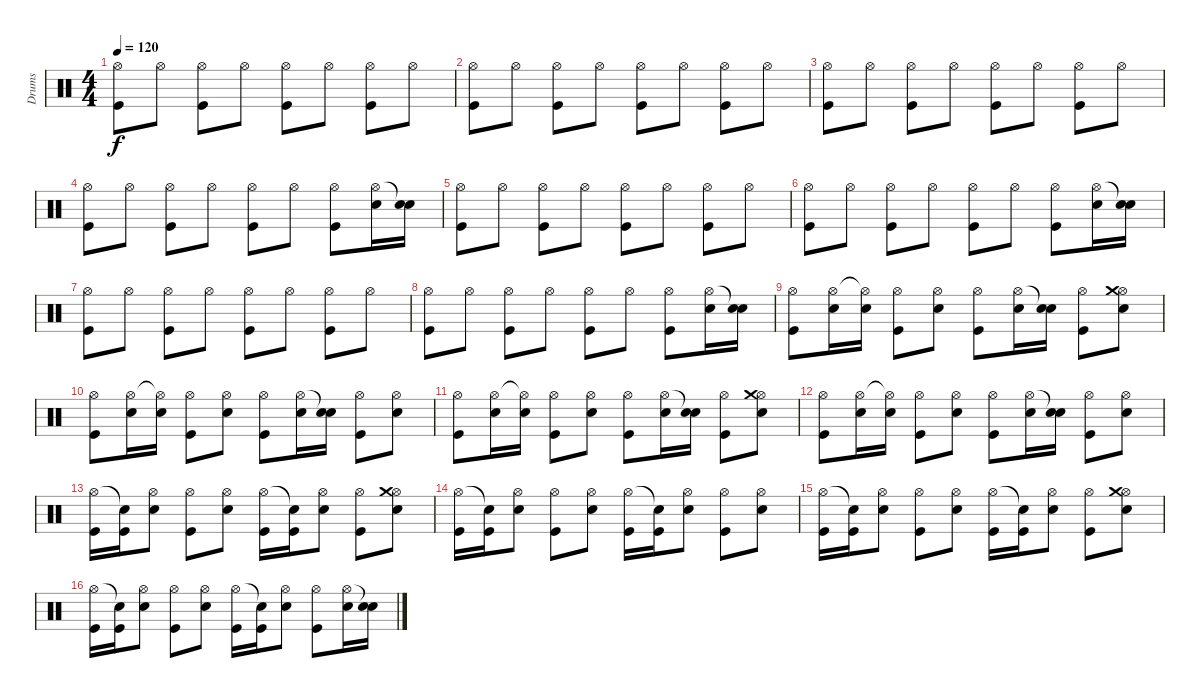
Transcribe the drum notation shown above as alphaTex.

\track ("Drums" "Drums") {instrument percussion}
\staff {score}
\articulation defaults
\ts (4 4)
\tempo 120
\clef neutral
\ks c
("Hi-Hat (open)" "Kick (hit)").8{dy f} "Hi-Hat (open)".8 ("Hi-Hat (open)" "Kick (hit)").8 "Hi-Hat (open)".8 ("Hi-Hat (open)" "Kick (hit)").8 "Hi-Hat (open)".8 ("Hi-Hat (open)" "Kick (hit)").8 "Hi-Hat (open)".8 |
("Hi-Hat (open)" "Kick (hit)").8 "Hi-Hat (open)".8 ("Hi-Hat (open)" "Kick (hit)").8 "Hi-Hat (open)".8 ("Hi-Hat (open)" "Kick (hit)").8 "Hi-Hat (open)".8 ("Hi-Hat (open)" "Kick (hit)").8 "Hi-Hat (open)".8 |
("Hi-Hat (open)" "Kick (hit)").8 "Hi-Hat (open)".8 ("Hi-Hat (open)" "Kick (hit)").8 "Hi-Hat (open)".8 ("Hi-Hat (open)" "Kick (hit)").8 "Hi-Hat (open)".8 ("Hi-Hat (open)" "Kick (hit)").8 "Hi-Hat (open)".8 |
("Hi-Hat (open)" "Kick (hit)").8 "Hi-Hat (open)".8 ("Hi-Hat (open)" "Kick (hit)").8 "Hi-Hat (open)".8 ("Hi-Hat (open)" "Kick (hit)").8 "Hi-Hat (open)".8 ("Hi-Hat (open)" "Kick (hit)").8 ("Hi-Hat (open)" "Electric Snare (hit)").16 ("Snare (hit)"{t} "Electric Snare (hit)").16 |
("Hi-Hat (open)" "Kick (hit)").8 "Hi-Hat (open)".8 ("Hi-Hat (open)" "Kick (hit)").8 "Hi-Hat (open)".8 ("Hi-Hat (open)" "Kick (hit)").8 "Hi-Hat (open)".8 ("Hi-Hat (open)" "Kick (hit)").8 "Hi-Hat (open)".8 |
("Hi-Hat (open)" "Kick (hit)").8 "Hi-Hat (open)".8 ("Hi-Hat (open)" "Kick (hit)").8 "Hi-Hat (open)".8 ("Hi-Hat (open)" "Kick (hit)").8 "Hi-Hat (open)".8 ("Hi-Hat (open)" "Kick (hit)").8 ("Hi-Hat (open)" "Electric Snare (hit)").16 ("Snare (hit)"{t} "Electric Snare (hit)").16 |
("Hi-Hat (open)" "Kick (hit)").8 "Hi-Hat (open)".8 ("Hi-Hat (open)" "Kick (hit)").8 "Hi-Hat (open)".8 ("Hi-Hat (open)" "Kick (hit)").8 "Hi-Hat (open)".8 ("Hi-Hat (open)" "Kick (hit)").8 "Hi-Hat (open)".8 |
("Hi-Hat (open)" "Kick (hit)").8 "Hi-Hat (open)".8 ("Hi-Hat (open)" "Kick (hit)").8 "Hi-Hat (open)".8 ("Hi-Hat (open)" "Kick (hit)").8 "Hi-Hat (open)".8 ("Hi-Hat (open)" "Kick (hit)").8 ("Hi-Hat (open)" "Electric Snare (hit)").16 ("Snare (hit)"{t} "Electric Snare (hit)").16 |
("Hi-Hat (open)" "Kick (hit)").8 ("Hi-Hat (open)" "Electric Snare (hit)").16 ("Hi-Hat (open)"{t} "Electric Snare (hit)").16 ("Hi-Hat (open)" "Kick (hit)").8 ("Hi-Hat (open)" "Electric Snare (hit)").8 ("Hi-Hat (open)" "Kick (hit)").8 ("Hi-Hat (open)" "Electric Snare (hit)").16 ("Snare (hit)"{t} "Electric Snare (hit)").16 ("Hi-Hat (open)" "Kick (hit)").8 ("Hi-Hat (open)" "Crash medium (hit)" "Electric Snare (hit)").8 |
("Hi-Hat (open)" "Kick (hit)").8 ("Hi-Hat (open)" "Electric Snare (hit)").16 ("Hi-Hat (open)"{t} "Electric Snare (hit)").16 ("Hi-Hat (open)" "Kick (hit)").8 ("Hi-Hat (open)" "Electric Snare (hit)").8 ("Hi-Hat (open)" "Kick (hit)").8 ("Hi-Hat (open)" "Electric Snare (hit)").16 ("Snare (hit)"{t} "Electric Snare (hit)").16 ("Hi-Hat (open)" "Kick (hit)").8 ("Hi-Hat (open)" "Electric Snare (hit)").8 |
("Hi-Hat (open)" "Kick (hit)").8 ("Hi-Hat (open)" "Electric Snare (hit)").16 ("Hi-Hat (open)"{t} "Electric Snare (hit)").16 ("Hi-Hat (open)" "Kick (hit)").8 ("Hi-Hat (open)" "Electric Snare (hit)").8 ("Hi-Hat (open)" "Kick (hit)").8 ("Hi-Hat (open)" "Electric Snare (hit)").16 ("Snare (hit)"{t} "Electric Snare (hit)").16 ("Hi-Hat (open)" "Kick (hit)").8 ("Hi-Hat (open)" "Crash medium (hit)" "Electric Snare (hit)").8 |
("Hi-Hat (open)" "Kick (hit)").8 ("Hi-Hat (open)" "Electric Snare (hit)").16 ("Hi-Hat (open)"{t} "Electric Snare (hit)").16 ("Hi-Hat (open)" "Kick (hit)").8 ("Hi-Hat (open)" "Electric Snare (hit)").8 ("Hi-Hat (open)" "Kick (hit)").8 ("Hi-Hat (open)" "Electric Snare (hit)").16 ("Snare (hit)"{t} "Electric Snare (hit)").16 ("Hi-Hat (open)" "Kick (hit)").8 ("Hi-Hat (open)" "Electric Snare (hit)").8 |
("Hi-Hat (open)" "Kick (hit)").16 ("Snare (hit)"{t} "Kick (hit)").16 ("Hi-Hat (open)" "Electric Snare (hit)").8 ("Hi-Hat (open)" "Kick (hit)").8 ("Hi-Hat (open)" "Electric Snare (hit)").8 ("Hi-Hat (open)" "Kick (hit)").16 ("Snare (hit)"{t} "Kick (hit)").16 ("Hi-Hat (open)" "Electric Snare (hit)").8 ("Hi-Hat (open)" "Kick (hit)").8 ("Hi-Hat (open)" "Crash medium (hit)" "Electric Snare (hit)").8 |
("Hi-Hat (open)" "Kick (hit)").16 ("Snare (hit)"{t} "Kick (hit)").16 ("Hi-Hat (open)" "Electric Snare (hit)").8 ("Hi-Hat (open)" "Kick (hit)").8 ("Hi-Hat (open)" "Electric Snare (hit)").8 ("Hi-Hat (open)" "Kick (hit)").16 ("Snare (hit)"{t} "Kick (hit)").16 ("Hi-Hat (open)" "Electric Snare (hit)").8 ("Hi-Hat (open)" "Kick (hit)").8 ("Hi-Hat (open)" "Electric Snare (hit)").8 |
("Hi-Hat (open)" "Kick (hit)").16 ("Snare (hit)"{t} "Kick (hit)").16 ("Hi-Hat (open)" "Electric Snare (hit)").8 ("Hi-Hat (open)" "Kick (hit)").8 ("Hi-Hat (open)" "Electric Snare (hit)").8 ("Hi-Hat (open)" "Kick (hit)").16 ("Snare (hit)"{t} "Kick (hit)").16 ("Hi-Hat (open)" "Electric Snare (hit)").8 ("Hi-Hat (open)" "Kick (hit)").8 ("Hi-Hat (open)" "Crash medium (hit)" "Electric Snare (hit)").8 |
("Hi-Hat (open)" "Kick (hit)").16 ("Snare (hit)"{t} "Kick (hit)").16 ("Hi-Hat (open)" "Electric Snare (hit)").8 ("Hi-Hat (open)" "Kick (hit)").8 ("Hi-Hat (open)" "Electric Snare (hit)").8 ("Hi-Hat (open)" "Kick (hit)").16 ("Snare (hit)"{t} "Kick (hit)").16 ("Hi-Hat (open)" "Electric Snare (hit)").8 ("Hi-Hat (open)" "Kick (hit)").8 ("Hi-Hat (open)" "Electric Snare (hit)").16 ("Snare (hit)"{t} "Electric Snare (hit)").16
